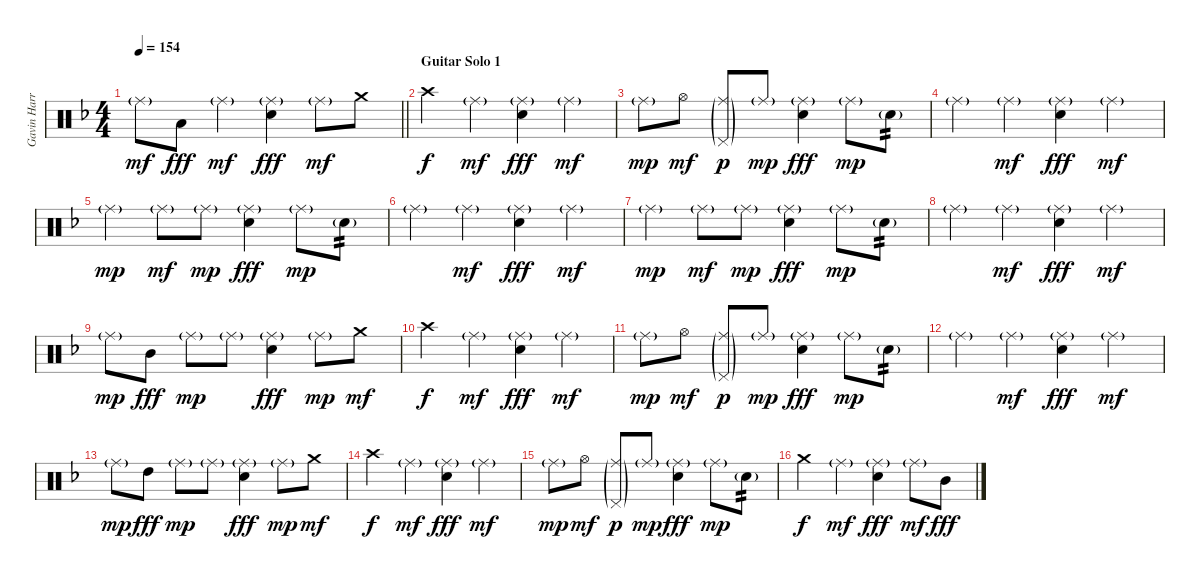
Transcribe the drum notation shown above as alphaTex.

\track ("Gavin Harrison Drums" "Gavin Harr") {instrument percussion}
\staff {score}
\articulation defaults
\ts (4 4)
\tempo 154
\clef neutral
\barLineRight lightlight
\ks dminor "Ride (middle)"{g}.8{dy mf} "Low Tom (hit)".8{dy fff} "Ride (middle)"{g}.4{dy mf}
("Ride (middle)"{g} "Electric Snare (hit)").4{dy fff} "Ride (middle)"{g}.8{dy mf} "Crash medium (hit)".8 |
\section ("" "Guitar Solo 1")
"Crash high (hit)".4{dy f} "Ride (middle)"{g}.4{dy mf} ("Ride (middle)"{g} "Electric Snare (hit)").4{dy fff} "Ride (middle)"{g}.4{dy mf} |
"Ride (middle)"{g}.8{dy mp} "Hi-Hat (open)".8{dy mf} ("Ride (middle)"{g} "Pedal Hi-Hat (hit)"{g}).8{dy p} "Ride (middle)"{g}.8{dy mp} ("Ride (middle)"{g} "Electric Snare (hit)").4{dy fff} "Ride (middle)"{g}.8{dy mp} "Electric Snare (hit)"{g}.8{tp 2} |
"Ride (middle)"{g}.4 "Ride (middle)"{g}.4{dy mf} ("Ride (middle)"{g} "Electric Snare (hit)").4{dy fff} "Ride (middle)"{g}.4{dy mf} |
"Ride (middle)"{g}.4{dy mp} "Ride (middle)"{g}.8{dy mf} "Ride (middle)"{g}.8{dy mp} ("Ride (middle)"{g} "Electric Snare (hit)").4{dy fff} "Ride (middle)"{g}.8{dy mp} "Electric Snare (hit)"{g}.8{tp 2} |
"Ride (middle)"{g}.4 "Ride (middle)"{g}.4{dy mf} ("Ride (middle)"{g} "Electric Snare (hit)").4{dy fff} "Ride (middle)"{g}.4{dy mf} |
"Ride (middle)"{g}.4{dy mp} "Ride (middle)"{g}.8{dy mf} "Ride (middle)"{g}.8{dy mp} ("Ride (middle)"{g} "Electric Snare (hit)").4{dy fff} "Ride (middle)"{g}.8{dy mp} "Electric Snare (hit)"{g}.8{tp 2} |
"Ride (middle)"{g}.4 "Ride (middle)"{g}.4{dy mf} ("Ride (middle)"{g} "Electric Snare (hit)").4{dy fff} "Ride (middle)"{g}.4{dy mf} |
"Ride (middle)"{g}.8{dy mp} "Mid Tom (hit)".8{dy fff} "Ride (middle)"{g}.8{dy mp} "Ride (middle)"{g}.8 ("Ride (middle)"{g} "Electric Snare (hit)").4{dy fff} "Ride (middle)"{g}.8{dy mp} "Crash medium (hit)".8{dy mf} |
"Crash high (hit)".4{dy f} "Ride (middle)"{g}.4{dy mf} ("Ride (middle)"{g} "Electric Snare (hit)").4{dy fff} "Ride (middle)"{g}.4{dy mf} |
"Ride (middle)"{g}.8{dy mp} "Hi-Hat (open)".8{dy mf} ("Ride (middle)"{g} "Pedal Hi-Hat (hit)"{g}).8{dy p} "Ride (middle)"{g}.8{dy mp} ("Ride (middle)"{g} "Electric Snare (hit)").4{dy fff} "Ride (middle)"{g}.8{dy mp} "Electric Snare (hit)"{g}.8{tp 2} |
"Ride (middle)"{g}.4 "Ride (middle)"{g}.4{dy mf} ("Ride (middle)"{g} "Electric Snare (hit)").4{dy fff} "Ride (middle)"{g}.4{dy mf} |
"Ride (middle)"{g}.8{dy mp} "High Tom (hit)".8{dy fff} "Ride (middle)"{g}.8{dy mp} "Ride (middle)"{g}.8 ("Ride (middle)"{g} "Electric Snare (hit)").4{dy fff} "Ride (middle)"{g}.8{dy mp} "Crash medium (hit)".8{dy mf} |
"Crash high (hit)".4{dy f} "Ride (middle)"{g}.4{dy mf} ("Ride (middle)"{g} "Electric Snare (hit)").4{dy fff} "Ride (middle)"{g}.4{dy mf} |
"Ride (middle)"{g}.8{dy mp} "Hi-Hat (open)".8{dy mf} ("Ride (middle)"{g} "Pedal Hi-Hat (hit)"{g}).8{dy p} "Ride (middle)"{g}.8{dy mp} ("Ride (middle)"{g} "Electric Snare (hit)").4{dy fff} "Ride (middle)"{g}.8{dy mp} "Electric Snare (hit)"{g}.8{tp 2} |
"Crash medium (hit)".4{dy f} "Ride (middle)"{g}.4{dy mf} ("Ride (middle)"{g} "Electric Snare (hit)").4{dy fff} "Ride (middle)"{g}.8{dy mf} "Mid Tom (hit)".8{dy fff}
